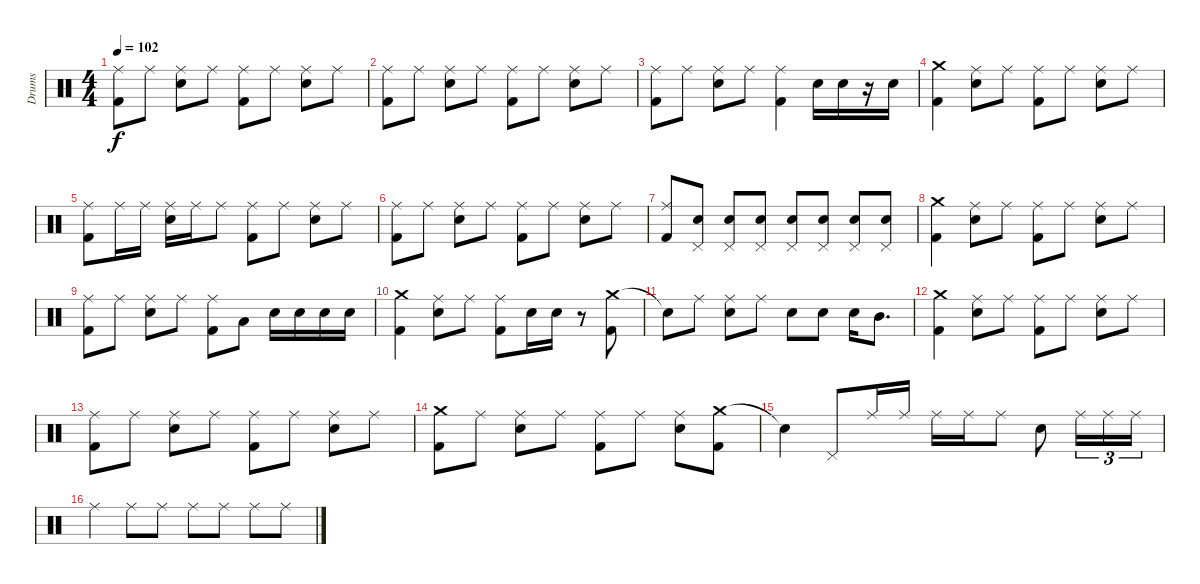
\track ("Drums" "Drums") {instrument percussion}
\staff {score}
\articulation defaults
\ts (4 4)
\tempo 102
\clef neutral
\ks c
("Ride (middle)" "Kick (hit) 2").8{dy f} "Ride (middle)".8 ("Ride (middle)" "Snare (hit) 2").8 "Ride (middle)".8 ("Ride (middle)" "Kick (hit) 2").8 "Ride (middle)".8 ("Ride (middle)" "Snare (hit) 2").8 "Ride (middle)".8 |
("Ride (middle)" "Kick (hit) 2").8 "Ride (middle)".8 ("Ride (middle)" "Snare (hit) 2").8 "Ride (middle)".8 ("Ride (middle)" "Kick (hit) 2").8 "Ride (middle)".8 ("Ride (middle)" "Snare (hit) 2").8 "Ride (middle)".8 |
("Ride (middle)" "Kick (hit) 2").8 "Ride (middle)".8 ("Ride (middle)" "Snare (hit) 2").8 "Ride (middle)".8 ("Ride (middle)" "Kick (hit) 2").4 "Snare (hit) 2".16 "Snare (hit) 2".16 r.16 "Snare (hit) 2".16 |
("Crash medium (hit)" "Kick (hit) 2").4 ("Ride (middle)" "Snare (hit) 2").8 "Ride (middle)".8 ("Ride (middle)" "Kick (hit) 2").8 "Ride (middle)".8 ("Ride (middle)" "Snare (hit) 2").8 "Ride (middle)".8 |
("Ride (middle)" "Kick (hit) 2").8 "Ride (middle)".16 "Ride (middle)".16 ("Ride (middle)" "Snare (hit) 2").16 "Ride (middle)".16 "Ride (middle)".8 ("Ride (middle)" "Kick (hit) 2").8 "Ride (middle)".8 ("Ride (middle)" "Snare (hit) 2").8 "Ride (middle)".8 |
("Ride (middle)" "Kick (hit) 2").8 "Ride (middle)".8 ("Ride (middle)" "Snare (hit) 2").8 "Ride (middle)".8 ("Ride (middle)" "Kick (hit) 2").8 "Ride (middle)".8 ("Ride (middle)" "Snare (hit) 2").8 "Ride (middle)".8 |
("Ride (middle)" "Kick (hit) 2").8 ("Pedal Hi-Hat (hit)" "Snare (hit) 2").8 ("Pedal Hi-Hat (hit)" "Snare (hit) 2").8 ("Pedal Hi-Hat (hit)" "Snare (hit) 2").8 ("Pedal Hi-Hat (hit)" "Snare (hit) 2").8 ("Pedal Hi-Hat (hit)" "Snare (hit) 2").8 ("Pedal Hi-Hat (hit)" "Snare (hit) 2").8 ("Pedal Hi-Hat (hit)" "Snare (hit) 2").8 |
("Crash medium (hit)" "Kick (hit) 2").4 ("Ride (middle)" "Snare (hit) 2").8 "Ride (middle)".8 ("Ride (middle)" "Kick (hit) 2").8 "Ride (middle)".8 ("Ride (middle)" "Snare (hit) 2").8 "Ride (middle)".8 |
("Ride (middle)" "Kick (hit) 2").8 "Ride (middle)".8 ("Ride (middle)" "Snare (hit) 2").8 "Ride (middle)".8 ("Ride (middle)" "Kick (hit) 2").8 "Low Tom (hit)".8 "Snare (hit) 2".16 "Snare (hit) 2".16 "Snare (hit) 2".16 "Snare (hit) 2".16 |
("Crash medium (hit)" "Kick (hit) 2").4 ("Ride (middle)" "Snare (hit) 2").8 "Ride (middle)".8 ("Ride (middle)" "Kick (hit) 2").8 "Snare (hit) 2".16 "Snare (hit) 2".16 r.8 ("Crash medium (hit)" "Kick (hit) 2").8 |
"Snare (hit)"{t}.8 "Ride (middle)".8 ("Ride (middle)" "Snare (hit) 2").8 "Ride (middle)".8 "Snare (hit) 2".8 "Snare (hit) 2".8 "Snare (hit) 2".16 "Mid Tom (hit)".8{d} |
("Crash medium (hit)" "Kick (hit) 2").4 ("Ride (middle)" "Snare (hit) 2").8 "Ride (middle)".8 ("Ride (middle)" "Kick (hit) 2").8 "Ride (middle)".8 ("Ride (middle)" "Snare (hit) 2").8 "Ride (middle)".8 |
("Ride (middle)" "Kick (hit) 2").8 "Ride (middle)".8 ("Ride (middle)" "Snare (hit) 2").8 "Ride (middle)".8 ("Ride (middle)" "Kick (hit) 2").8 "Ride (middle)".8 ("Ride (middle)" "Snare (hit) 2").8 "Ride (middle)".8 |
("Crash medium (hit)" "Kick (hit) 2").8 "Ride (middle)".8 ("Ride (middle)" "Snare (hit) 2").8 "Ride (middle)".8 ("Ride (middle)" "Kick (hit) 2").8 "Ride (middle)".8 ("Ride (middle)" "Snare (hit) 2").8 ("Crash medium (hit)" "Kick (hit) 2").8 |
"Snare (hit)"{t}.4 "Pedal Hi-Hat (hit)".8 "Ride (middle)".16 "Ride (middle)".16 "Ride (middle)".16 "Ride (middle)".16 "Ride (middle)".8 "Snare (hit) 2".8 "Ride (middle)".16{tu (3 2)} "Ride (middle)".16{tu (3 2)} "Ride (middle)".16{tu (3 2)} |
"Ride (middle)".4 "Ride (middle)".8 "Ride (middle)".8 "Ride (middle)".8 "Ride (middle)".8 "Ride (middle)".8 "Ride (middle)".8
